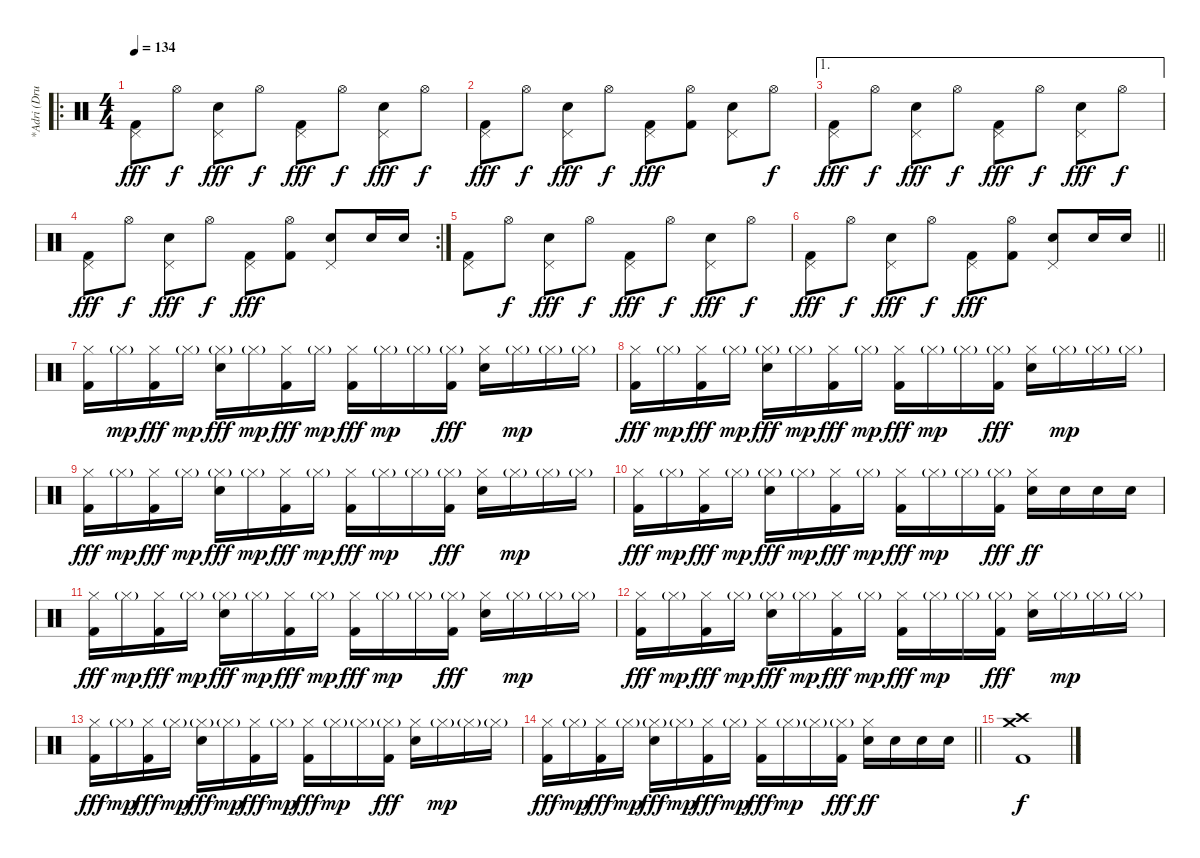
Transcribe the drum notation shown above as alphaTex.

\track ("*Adri (Drum)" "*Adri (Dru") {instrument percussion}
\staff {score}
\articulation defaults
\ro
\ts (4 4)
\tempo 134
\clef neutral
\ks c
("Pedal Hi-Hat (hit)" "Kick (hit) 2").8{dy fff} "Hi-Hat (open)".8{dy f} ("Pedal Hi-Hat (hit)" "Snare (hit) 2").8{dy fff} "Hi-Hat (open)".8{dy f} ("Pedal Hi-Hat (hit)" "Kick (hit) 2").8{dy fff} "Hi-Hat (open)".8{dy f} ("Pedal Hi-Hat (hit)" "Snare (hit) 2").8{dy fff} "Hi-Hat (open)".8{dy f} |
("Pedal Hi-Hat (hit)" "Kick (hit) 2").8{dy fff} "Hi-Hat (open)".8{dy f} ("Pedal Hi-Hat (hit)" "Snare (hit) 2").8{dy fff} "Hi-Hat (open)".8{dy f} ("Pedal Hi-Hat (hit)" "Kick (hit) 2").8{dy fff} ("Hi-Hat (open)" "Kick (hit) 2").8 ("Pedal Hi-Hat (hit)" "Snare (hit) 2").8 "Hi-Hat (open)".8{dy f} |
\ae 1
("Pedal Hi-Hat (hit)" "Kick (hit) 2").8{dy fff} "Hi-Hat (open)".8{dy f} ("Pedal Hi-Hat (hit)" "Snare (hit) 2").8{dy fff} "Hi-Hat (open)".8{dy f} ("Pedal Hi-Hat (hit)" "Kick (hit) 2").8{dy fff} "Hi-Hat (open)".8{dy f} ("Pedal Hi-Hat (hit)" "Snare (hit) 2").8{dy fff} "Hi-Hat (open)".8{dy f} |
\rc 2
("Pedal Hi-Hat (hit)" "Kick (hit) 2").8{dy fff} "Hi-Hat (open)".8{dy f} ("Pedal Hi-Hat (hit)" "Snare (hit) 2").8{dy fff} "Hi-Hat (open)".8{dy f} ("Pedal Hi-Hat (hit)" "Kick (hit) 2").8{dy fff} ("Hi-Hat (open)" "Kick (hit) 2").8 ("Pedal Hi-Hat (hit)" "Snare (hit) 2").8 "Snare (hit) 2".16 "Snare (hit) 2".16 |
("Pedal Hi-Hat (hit)" "Kick (hit) 2").8 "Hi-Hat (open)".8{dy f} ("Pedal Hi-Hat (hit)" "Snare (hit) 2").8{dy fff} "Hi-Hat (open)".8{dy f} ("Pedal Hi-Hat (hit)" "Kick (hit) 2").8{dy fff} "Hi-Hat (open)".8{dy f} ("Pedal Hi-Hat (hit)" "Snare (hit) 2").8{dy fff} "Hi-Hat (open)".8{dy f} |
\barLineRight lightlight
("Pedal Hi-Hat (hit)" "Kick (hit) 2").8{dy fff} "Hi-Hat (open)".8{dy f} ("Pedal Hi-Hat (hit)" "Snare (hit) 2").8{dy fff} "Hi-Hat (open)".8{dy f} ("Pedal Hi-Hat (hit)" "Kick (hit) 2").8{dy fff} ("Hi-Hat (open)" "Kick (hit) 2").8 ("Pedal Hi-Hat (hit)" "Snare (hit) 2").8 "Snare (hit) 2".16 "Snare (hit) 2".16 |
\section ("" "")
("Hi-Hat (closed)" "Kick (hit) 2").16 "Hi-Hat (closed)"{g}.16{dy mp} ("Hi-Hat (closed)" "Kick (hit) 2").16{dy fff} "Hi-Hat (closed)"{g}.16{dy mp} ("Hi-Hat (closed)"{g} "Snare (hit) 2").16{dy fff} "Hi-Hat (closed)"{g}.16{dy mp} ("Hi-Hat (closed)" "Kick (hit) 2").16{dy fff} "Hi-Hat (closed)"{g}.16{dy mp} ("Hi-Hat (closed)" "Kick (hit) 2").16{dy fff} "Hi-Hat (closed)"{g}.16{dy mp} "Hi-Hat (closed)"{g}.16 ("Hi-Hat (closed)"{g} "Kick (hit) 2").16{dy fff} ("Hi-Hat (closed)" "Snare (hit) 2").16 "Hi-Hat (closed)"{g}.16{dy mp} "Hi-Hat (closed)"{g}.16 "Hi-Hat (closed)"{g}.16 |
("Hi-Hat (closed)" "Kick (hit) 2").16{dy fff} "Hi-Hat (closed)"{g}.16{dy mp} ("Hi-Hat (closed)" "Kick (hit) 2").16{dy fff} "Hi-Hat (closed)"{g}.16{dy mp} ("Hi-Hat (closed)"{g} "Snare (hit) 2").16{dy fff} "Hi-Hat (closed)"{g}.16{dy mp} ("Hi-Hat (closed)" "Kick (hit) 2").16{dy fff} "Hi-Hat (closed)"{g}.16{dy mp} ("Hi-Hat (closed)" "Kick (hit) 2").16{dy fff} "Hi-Hat (closed)"{g}.16{dy mp} "Hi-Hat (closed)"{g}.16 ("Hi-Hat (closed)"{g} "Kick (hit) 2").16{dy fff} ("Hi-Hat (closed)" "Snare (hit) 2").16 "Hi-Hat (closed)"{g}.16{dy mp} "Hi-Hat (closed)"{g}.16 "Hi-Hat (closed)"{g}.16 |
("Hi-Hat (closed)" "Kick (hit) 2").16{dy fff} "Hi-Hat (closed)"{g}.16{dy mp} ("Hi-Hat (closed)" "Kick (hit) 2").16{dy fff} "Hi-Hat (closed)"{g}.16{dy mp} ("Hi-Hat (closed)"{g} "Snare (hit) 2").16{dy fff} "Hi-Hat (closed)"{g}.16{dy mp} ("Hi-Hat (closed)" "Kick (hit) 2").16{dy fff} "Hi-Hat (closed)"{g}.16{dy mp} ("Hi-Hat (closed)" "Kick (hit) 2").16{dy fff} "Hi-Hat (closed)"{g}.16{dy mp} "Hi-Hat (closed)"{g}.16 ("Hi-Hat (closed)"{g} "Kick (hit) 2").16{dy fff} ("Hi-Hat (closed)" "Snare (hit) 2").16 "Hi-Hat (closed)"{g}.16{dy mp} "Hi-Hat (closed)"{g}.16 "Hi-Hat (closed)"{g}.16 |
("Hi-Hat (closed)" "Kick (hit) 2").16{dy fff} "Hi-Hat (closed)"{g}.16{dy mp} ("Hi-Hat (closed)" "Kick (hit) 2").16{dy fff} "Hi-Hat (closed)"{g}.16{dy mp} ("Hi-Hat (closed)"{g} "Snare (hit) 2").16{dy fff} "Hi-Hat (closed)"{g}.16{dy mp} ("Hi-Hat (closed)" "Kick (hit) 2").16{dy fff} "Hi-Hat (closed)"{g}.16{dy mp} ("Hi-Hat (closed)" "Kick (hit) 2").16{dy fff} "Hi-Hat (closed)"{g}.16{dy mp} "Hi-Hat (closed)"{g}.16 ("Hi-Hat (closed)"{g} "Kick (hit) 2").16{dy fff} ("Hi-Hat (closed)" "Snare (hit) 2").16{dy ff} "Snare (hit) 2".16 "Snare (hit) 2".16 "Snare (hit) 2".16 |
("Hi-Hat (closed)" "Kick (hit) 2").16{dy fff} "Hi-Hat (closed)"{g}.16{dy mp} ("Hi-Hat (closed)" "Kick (hit) 2").16{dy fff} "Hi-Hat (closed)"{g}.16{dy mp} ("Hi-Hat (closed)"{g} "Snare (hit) 2").16{dy fff} "Hi-Hat (closed)"{g}.16{dy mp} ("Hi-Hat (closed)" "Kick (hit) 2").16{dy fff} "Hi-Hat (closed)"{g}.16{dy mp} ("Hi-Hat (closed)" "Kick (hit) 2").16{dy fff} "Hi-Hat (closed)"{g}.16{dy mp} "Hi-Hat (closed)"{g}.16 ("Hi-Hat (closed)"{g} "Kick (hit) 2").16{dy fff} ("Hi-Hat (closed)" "Snare (hit) 2").16 "Hi-Hat (closed)"{g}.16{dy mp} "Hi-Hat (closed)"{g}.16 "Hi-Hat (closed)"{g}.16 |
("Hi-Hat (closed)" "Kick (hit) 2").16{dy fff} "Hi-Hat (closed)"{g}.16{dy mp} ("Hi-Hat (closed)" "Kick (hit) 2").16{dy fff} "Hi-Hat (closed)"{g}.16{dy mp} ("Hi-Hat (closed)"{g} "Snare (hit) 2").16{dy fff} "Hi-Hat (closed)"{g}.16{dy mp} ("Hi-Hat (closed)" "Kick (hit) 2").16{dy fff} "Hi-Hat (closed)"{g}.16{dy mp} ("Hi-Hat (closed)" "Kick (hit) 2").16{dy fff} "Hi-Hat (closed)"{g}.16{dy mp} "Hi-Hat (closed)"{g}.16 ("Hi-Hat (closed)"{g} "Kick (hit) 2").16{dy fff} ("Hi-Hat (closed)" "Snare (hit) 2").16 "Hi-Hat (closed)"{g}.16{dy mp} "Hi-Hat (closed)"{g}.16 "Hi-Hat (closed)"{g}.16 |
("Hi-Hat (closed)" "Kick (hit) 2").16{dy fff} "Hi-Hat (closed)"{g}.16{dy mp} ("Hi-Hat (closed)" "Kick (hit) 2").16{dy fff} "Hi-Hat (closed)"{g}.16{dy mp} ("Hi-Hat (closed)"{g} "Snare (hit) 2").16{dy fff} "Hi-Hat (closed)"{g}.16{dy mp} ("Hi-Hat (closed)" "Kick (hit) 2").16{dy fff} "Hi-Hat (closed)"{g}.16{dy mp} ("Hi-Hat (closed)" "Kick (hit) 2").16{dy fff} "Hi-Hat (closed)"{g}.16{dy mp} "Hi-Hat (closed)"{g}.16 ("Hi-Hat (closed)"{g} "Kick (hit) 2").16{dy fff} ("Hi-Hat (closed)" "Snare (hit) 2").16 "Hi-Hat (closed)"{g}.16{dy mp} "Hi-Hat (closed)"{g}.16 "Hi-Hat (closed)"{g}.16 |
\barLineRight lightlight
("Hi-Hat (closed)" "Kick (hit) 2").16{dy fff} "Hi-Hat (closed)"{g}.16{dy mp} ("Hi-Hat (closed)" "Kick (hit) 2").16{dy fff} "Hi-Hat (closed)"{g}.16{dy mp} ("Hi-Hat (closed)"{g} "Snare (hit) 2").16{dy fff} "Hi-Hat (closed)"{g}.16{dy mp} ("Hi-Hat (closed)" "Kick (hit) 2").16{dy fff} "Hi-Hat (closed)"{g}.16{dy mp} ("Hi-Hat (closed)" "Kick (hit) 2").16{dy fff} "Hi-Hat (closed)"{g}.16{dy mp} "Hi-Hat (closed)"{g}.16 ("Hi-Hat (closed)"{g} "Kick (hit) 2").16{dy fff} ("Hi-Hat (closed)" "Snare (hit) 2").16{dy ff} "Snare (hit) 2".16 "Snare (hit) 2".16 "Snare (hit) 2".16 |
\section ("" "")
("Crash high (hit)" "Crash medium (hit)" "Kick (hit) 2").1{dy f}
